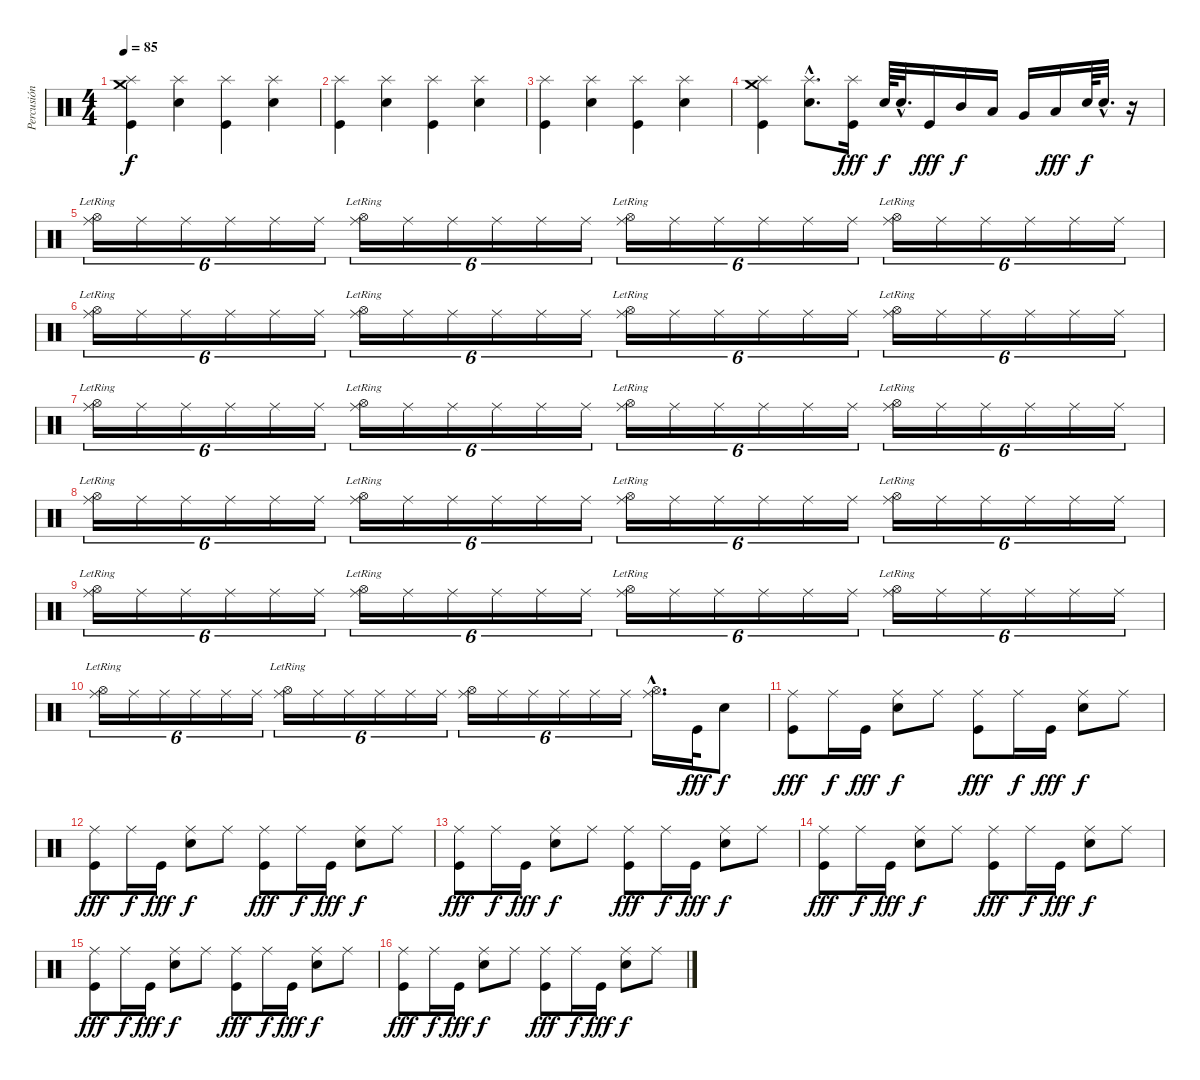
\track ("Percusión" "Percusión") {instrument percussion}
\staff {score}
\articulation defaults
\ts (4 4)
\tempo 85
\clef neutral
\ks c
("Crash medium (hit)" "Kick (hit)" "Splash (hit)").4{dy f} ("Splash (hit)" "Electric Snare (hit)").4 ("Splash (hit)" "Kick (hit)").4 ("Splash (hit)" "Electric Snare (hit)").4 |
("Splash (hit)" "Kick (hit)").4 ("Splash (hit)" "Electric Snare (hit)").4 ("Splash (hit)" "Kick (hit)").4 ("Splash (hit)" "Electric Snare (hit)").4 |
("Splash (hit)" "Kick (hit)").4 ("Splash (hit)" "Electric Snare (hit)").4 ("Splash (hit)" "Kick (hit)").4 ("Splash (hit)" "Electric Snare (hit)").4 |
("Splash (hit)" "Kick (hit)" "Crash medium (hit)").4 ("Splash (hit)"{hac} "Electric Snare (hit)"{hac}).8{d} ("Splash (hit)" "Kick (hit)").16{dy fff} "Snare (hit) 2".64{dy f} "Snare (hit) 2"{hac}.32{d} "Kick (hit)".16{dy fff} "Mid Tom (hit)".16{dy f} "Low Tom (hit)".16 "Very Low Tom (hit)".16 "Low Floor Tom (hit)".16{dy fff} "Snare (hit) 2".64{dy f} "Snare (hit) 2"{hac}.32{d} r.16 |
("Ride (middle)" "Hi-Hat (open)"{lr}).16{tu (6 4) volume 10} "Ride (middle)".16{tu (6 4)} "Ride (middle)".16{tu (6 4)} "Ride (middle)".16{tu (6 4)} "Ride (middle)".16{tu (6 4)} "Ride (middle)".16{tu (6 4)} ("Ride (middle)" "Hi-Hat (open)"{lr}).16{tu (6 4)} "Ride (middle)".16{tu (6 4)} "Ride (middle)".16{tu (6 4)} "Ride (middle)".16{tu (6 4)} "Ride (middle)".16{tu (6 4)} "Ride (middle)".16{tu (6 4)} ("Ride (middle)" "Hi-Hat (open)"{lr}).16{tu (6 4)} "Ride (middle)".16{tu (6 4)} "Ride (middle)".16{tu (6 4)} "Ride (middle)".16{tu (6 4)} "Ride (middle)".16{tu (6 4)} "Ride (middle)".16{tu (6 4)} ("Ride (middle)" "Hi-Hat (open)"{lr}).16{tu (6 4)} "Ride (middle)".16{tu (6 4)} "Ride (middle)".16{tu (6 4)} "Ride (middle)".16{tu (6 4)} "Ride (middle)".16{tu (6 4)} "Ride (middle)".16{tu (6 4)} |
("Ride (middle)" "Hi-Hat (open)"{lr}).16{tu (6 4)} "Ride (middle)".16{tu (6 4)} "Ride (middle)".16{tu (6 4)} "Ride (middle)".16{tu (6 4)} "Ride (middle)".16{tu (6 4)} "Ride (middle)".16{tu (6 4)} ("Ride (middle)" "Hi-Hat (open)"{lr}).16{tu (6 4)} "Ride (middle)".16{tu (6 4)} "Ride (middle)".16{tu (6 4)} "Ride (middle)".16{tu (6 4)} "Ride (middle)".16{tu (6 4)} "Ride (middle)".16{tu (6 4)} ("Ride (middle)" "Hi-Hat (open)"{lr}).16{tu (6 4)} "Ride (middle)".16{tu (6 4)} "Ride (middle)".16{tu (6 4)} "Ride (middle)".16{tu (6 4)} "Ride (middle)".16{tu (6 4)} "Ride (middle)".16{tu (6 4)} ("Ride (middle)" "Hi-Hat (open)"{lr}).16{tu (6 4)} "Ride (middle)".16{tu (6 4)} "Ride (middle)".16{tu (6 4)} "Ride (middle)".16{tu (6 4)} "Ride (middle)".16{tu (6 4)} "Ride (middle)".16{tu (6 4)} |
("Ride (middle)" "Hi-Hat (open)"{lr}).16{tu (6 4)} "Ride (middle)".16{tu (6 4)} "Ride (middle)".16{tu (6 4)} "Ride (middle)".16{tu (6 4)} "Ride (middle)".16{tu (6 4)} "Ride (middle)".16{tu (6 4)} ("Ride (middle)" "Hi-Hat (open)"{lr}).16{tu (6 4)} "Ride (middle)".16{tu (6 4)} "Ride (middle)".16{tu (6 4)} "Ride (middle)".16{tu (6 4)} "Ride (middle)".16{tu (6 4)} "Ride (middle)".16{tu (6 4)} ("Ride (middle)" "Hi-Hat (open)"{lr}).16{tu (6 4)} "Ride (middle)".16{tu (6 4)} "Ride (middle)".16{tu (6 4)} "Ride (middle)".16{tu (6 4)} "Ride (middle)".16{tu (6 4)} "Ride (middle)".16{tu (6 4)} ("Ride (middle)" "Hi-Hat (open)"{lr}).16{tu (6 4)} "Ride (middle)".16{tu (6 4)} "Ride (middle)".16{tu (6 4)} "Ride (middle)".16{tu (6 4)} "Ride (middle)".16{tu (6 4)} "Ride (middle)".16{tu (6 4)} |
("Ride (middle)" "Hi-Hat (open)"{lr}).16{tu (6 4)} "Ride (middle)".16{tu (6 4)} "Ride (middle)".16{tu (6 4)} "Ride (middle)".16{tu (6 4)} "Ride (middle)".16{tu (6 4)} "Ride (middle)".16{tu (6 4)} ("Ride (middle)" "Hi-Hat (open)"{lr}).16{tu (6 4)} "Ride (middle)".16{tu (6 4)} "Ride (middle)".16{tu (6 4)} "Ride (middle)".16{tu (6 4)} "Ride (middle)".16{tu (6 4)} "Ride (middle)".16{tu (6 4)} ("Ride (middle)" "Hi-Hat (open)"{lr}).16{tu (6 4)} "Ride (middle)".16{tu (6 4)} "Ride (middle)".16{tu (6 4)} "Ride (middle)".16{tu (6 4)} "Ride (middle)".16{tu (6 4)} "Ride (middle)".16{tu (6 4)} ("Ride (middle)" "Hi-Hat (open)"{lr}).16{tu (6 4)} "Ride (middle)".16{tu (6 4)} "Ride (middle)".16{tu (6 4)} "Ride (middle)".16{tu (6 4)} "Ride (middle)".16{tu (6 4)} "Ride (middle)".16{tu (6 4)} |
("Ride (middle)" "Hi-Hat (open)"{lr}).16{tu (6 4)} "Ride (middle)".16{tu (6 4)} "Ride (middle)".16{tu (6 4)} "Ride (middle)".16{tu (6 4)} "Ride (middle)".16{tu (6 4)} "Ride (middle)".16{tu (6 4)} ("Ride (middle)" "Hi-Hat (open)"{lr}).16{tu (6 4)} "Ride (middle)".16{tu (6 4)} "Ride (middle)".16{tu (6 4)} "Ride (middle)".16{tu (6 4)} "Ride (middle)".16{tu (6 4)} "Ride (middle)".16{tu (6 4)} ("Ride (middle)" "Hi-Hat (open)"{lr}).16{tu (6 4)} "Ride (middle)".16{tu (6 4)} "Ride (middle)".16{tu (6 4)} "Ride (middle)".16{tu (6 4)} "Ride (middle)".16{tu (6 4)} "Ride (middle)".16{tu (6 4)} ("Ride (middle)" "Hi-Hat (open)"{lr}).16{tu (6 4)} "Ride (middle)".16{tu (6 4)} "Ride (middle)".16{tu (6 4)} "Ride (middle)".16{tu (6 4)} "Ride (middle)".16{tu (6 4)} "Ride (middle)".16{tu (6 4)} |
("Ride (middle)" "Hi-Hat (open)"{lr}).16{tu (6 4)} "Ride (middle)".16{tu (6 4)} "Ride (middle)".16{tu (6 4)} "Ride (middle)".16{tu (6 4)} "Ride (middle)".16{tu (6 4)} "Ride (middle)".16{tu (6 4)} ("Ride (middle)" "Hi-Hat (open)"{lr}).16{tu (6 4)} "Ride (middle)".16{tu (6 4)} "Ride (middle)".16{tu (6 4)} "Ride (middle)".16{tu (6 4)} "Ride (middle)".16{tu (6 4)} "Ride (middle)".16{tu (6 4)} ("Ride (middle)" "Hi-Hat (open)").16{tu (6 4)} "Ride (middle)".16{tu (6 4)} "Ride (middle)".16{tu (6 4)} "Ride (middle)".16{tu (6 4)} "Ride (middle)".16{tu (6 4)} "Ride (middle)".16{tu (6 4)} ("Ride (middle)"{hac} "Hi-Hat (open)"{hac}).16{d} "Kick (hit)".32{dy fff volume 13} "Electric Snare (hit)".8{dy f} |
("Ride (middle)" "Kick (hit)").8{dy fff} "Ride (middle)".16{dy f} "Kick (hit)".16{dy fff} ("Ride (middle)" "Electric Snare (hit)").8{dy f} "Ride (middle)".8 ("Ride (middle)" "Kick (hit)").8{dy fff} "Ride (middle)".16{dy f} "Kick (hit)".16{dy fff} ("Ride (middle)" "Electric Snare (hit)").8{dy f} "Ride (middle)".8 |
("Ride (middle)" "Kick (hit)").8{dy fff} "Ride (middle)".16{dy f} "Kick (hit)".16{dy fff} ("Ride (middle)" "Electric Snare (hit)").8{dy f} "Ride (middle)".8 ("Ride (middle)" "Kick (hit)").8{dy fff} "Ride (middle)".16{dy f} "Kick (hit)".16{dy fff} ("Ride (middle)" "Electric Snare (hit)").8{dy f} "Ride (middle)".8 |
("Ride (middle)" "Kick (hit)").8{dy fff} "Ride (middle)".16{dy f} "Kick (hit)".16{dy fff} ("Ride (middle)" "Electric Snare (hit)").8{dy f} "Ride (middle)".8 ("Ride (middle)" "Kick (hit)").8{dy fff} "Ride (middle)".16{dy f} "Kick (hit)".16{dy fff} ("Ride (middle)" "Electric Snare (hit)").8{dy f} "Ride (middle)".8 |
("Ride (middle)" "Kick (hit)").8{dy fff} "Ride (middle)".16{dy f} "Kick (hit)".16{dy fff} ("Ride (middle)" "Electric Snare (hit)").8{dy f} "Ride (middle)".8 ("Ride (middle)" "Kick (hit)").8{dy fff} "Ride (middle)".16{dy f} "Kick (hit)".16{dy fff} ("Ride (middle)" "Electric Snare (hit)").8{dy f} "Ride (middle)".8 |
("Ride (middle)" "Kick (hit)").8{dy fff} "Ride (middle)".16{dy f} "Kick (hit)".16{dy fff} ("Ride (middle)" "Electric Snare (hit)").8{dy f} "Ride (middle)".8 ("Ride (middle)" "Kick (hit)").8{dy fff} "Ride (middle)".16{dy f} "Kick (hit)".16{dy fff} ("Ride (middle)" "Electric Snare (hit)").8{dy f} "Ride (middle)".8 |
("Ride (middle)" "Kick (hit)").8{dy fff} "Ride (middle)".16{dy f} "Kick (hit)".16{dy fff} ("Ride (middle)" "Electric Snare (hit)").8{dy f} "Ride (middle)".8 ("Ride (middle)" "Kick (hit)").8{dy fff} "Ride (middle)".16{dy f} "Kick (hit)".16{dy fff} ("Ride (middle)" "Electric Snare (hit)").8{dy f} "Ride (middle)".8
